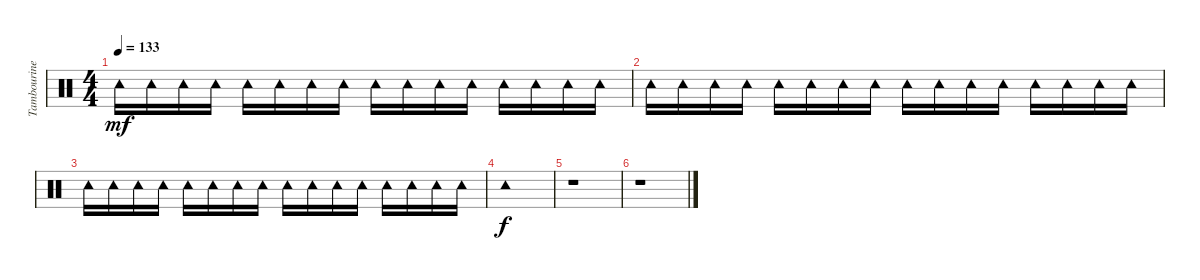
\track ("Tambourine" "Tambourine") {instrument percussion}
\staff {score}
\articulation defaults
\ts (4 4)
\tempo 133
\clef neutral
\ks c "Tambourine (hit)".16{dy mf} "Tambourine (hit)".16 "Tambourine (hit)".16 "Tambourine (hit)".16 "Tambourine (hit)".16 "Tambourine (hit)".16 "Tambourine (hit)".16 "Tambourine (hit)".16 "Tambourine (hit)".16 "Tambourine (hit)".16 "Tambourine (hit)".16 "Tambourine (hit)".16 "Tambourine (hit)".16 "Tambourine (hit)".16 "Tambourine (hit)".16 "Tambourine (hit)".16
|
"Tambourine (hit)".16 "Tambourine (hit)".16 "Tambourine (hit)".16 "Tambourine (hit)".16 "Tambourine (hit)".16 "Tambourine (hit)".16 "Tambourine (hit)".16 "Tambourine (hit)".16 "Tambourine (hit)".16 "Tambourine (hit)".16 "Tambourine (hit)".16 "Tambourine (hit)".16 "Tambourine (hit)".16 "Tambourine (hit)".16 "Tambourine (hit)".16 "Tambourine (hit)".16 |
"Tambourine (hit)".16 "Tambourine (hit)".16 "Tambourine (hit)".16 "Tambourine (hit)".16 "Tambourine (hit)".16 "Tambourine (hit)".16 "Tambourine (hit)".16 "Tambourine (hit)".16 "Tambourine (hit)".16 "Tambourine (hit)".16 "Tambourine (hit)".16 "Tambourine (hit)".16 "Tambourine (hit)".16 "Tambourine (hit)".16 "Tambourine (hit)".16 "Tambourine (hit)".16 |
"Tambourine (hit)".1{dy f} |
r.1 |
r.1
